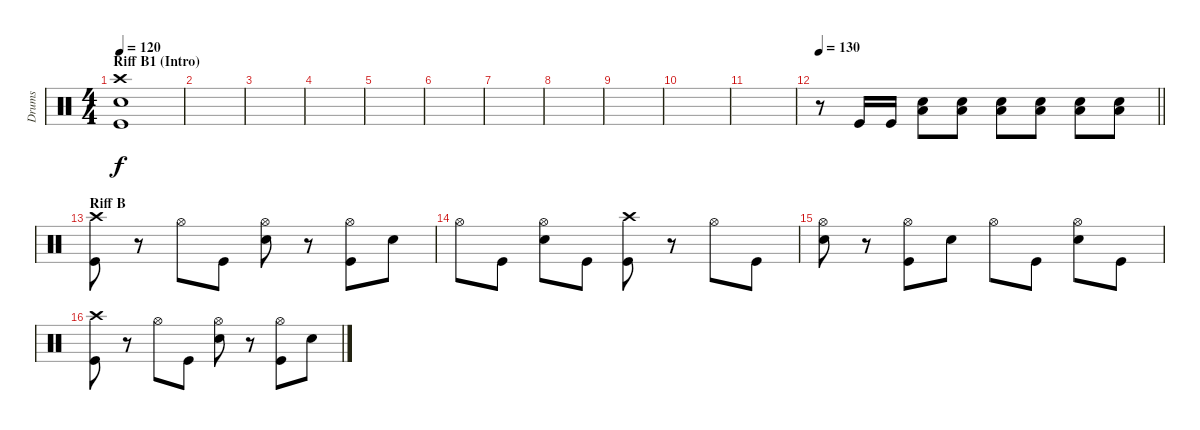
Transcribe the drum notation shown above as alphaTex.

\track ("Drums" "Drums") {instrument percussion}
\staff {score}
\articulation defaults
\ts (4 4)
\section ("" "Riff B1 (Intro)")
\tempo 120
\clef neutral
\ks c
("Crash high (hit)" "Snare (hit) 2" "Kick (hit)").1{dy f} |
|
|
|
|
|
|
|
|
|
|
\tempo 130
\barLineRight lightlight
r.8 "Kick (hit)".16 "Kick (hit)".16 ("Low Tom (hit)" "Snare (hit) 2").8 ("Low Tom (hit)" "Snare (hit) 2").8 ("Low Tom (hit)" "Snare (hit) 2").8 ("Low Tom (hit)" "Snare (hit) 2").8 ("Low Tom (hit)" "Snare (hit) 2").8 ("Low Tom (hit)" "Snare (hit) 2").8 |
\section ("" "Riff B")
("Crash high (hit)" "Kick (hit)").8 r.8 "Hi-Hat (open)".8 "Kick (hit)".8 ("Hi-Hat (open)" "Snare (hit) 2").8 r.8 ("Hi-Hat (open)" "Kick (hit)").8 "Snare (hit) 2".8 |
"Hi-Hat (open)".8 "Kick (hit)".8 ("Hi-Hat (open)" "Snare (hit) 2").8 "Kick (hit)".8 ("Crash high (hit)" "Kick (hit)").8 r.8 "Hi-Hat (open)".8 "Kick (hit)".8 |
("Hi-Hat (open)" "Snare (hit) 2").8 r.8 ("Hi-Hat (open)" "Kick (hit)").8 "Snare (hit) 2".8 "Hi-Hat (open)".8 "Kick (hit)".8 ("Hi-Hat (open)" "Snare (hit) 2").8 "Kick (hit)".8 |
("Crash high (hit)" "Kick (hit)").8 r.8 "Hi-Hat (open)".8 "Kick (hit)".8 ("Hi-Hat (open)" "Snare (hit) 2").8 r.8 ("Hi-Hat (open)" "Kick (hit)").8 "Snare (hit) 2".8
